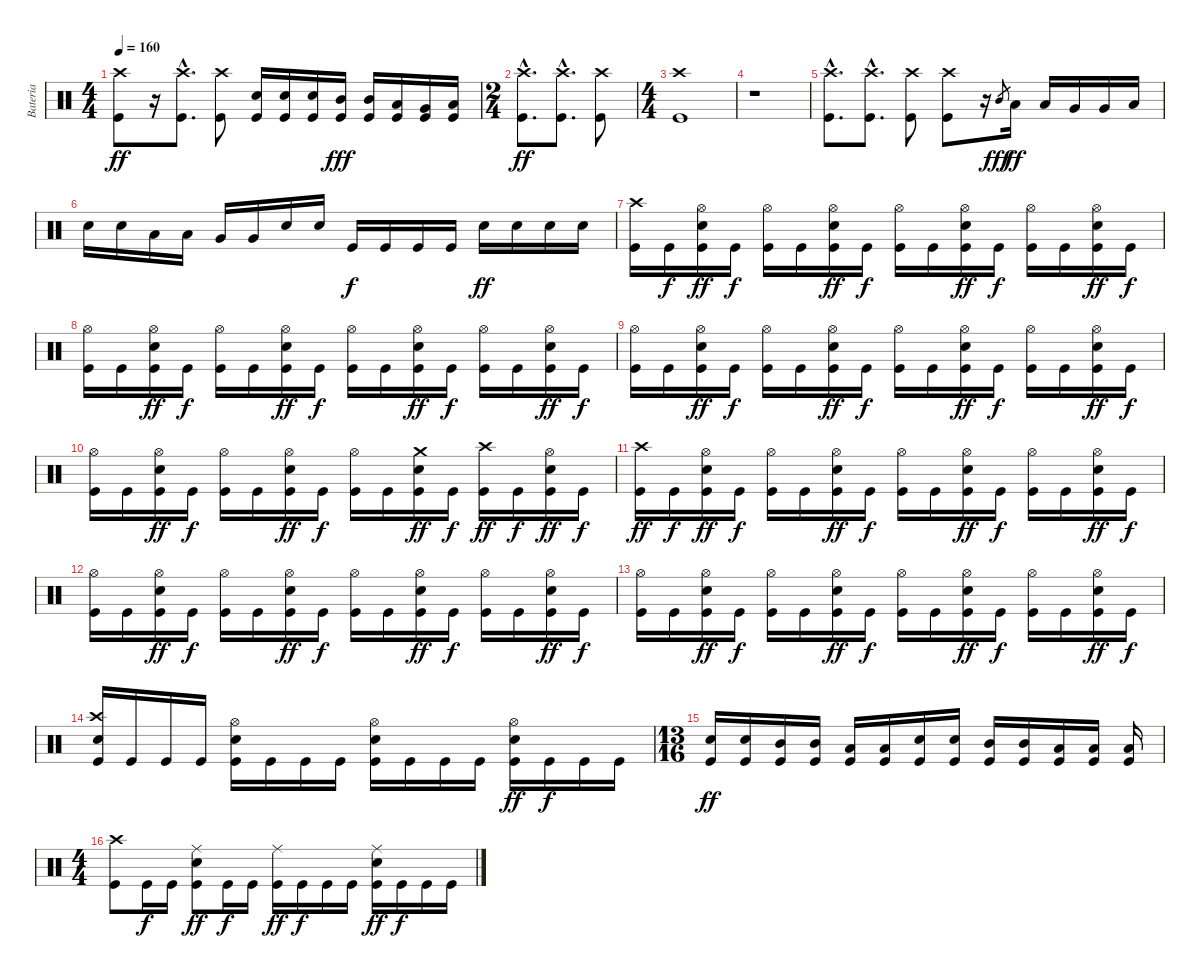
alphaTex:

\track ("Bateria" "Bateria") {instrument percussion}
\staff {score}
\articulation defaults
\ts (4 4)
\tempo 160
\clef neutral
\ks c
("Kick (hit)" "Crash high (hit)").8{dy ff} r.16 ("Kick (hit)"{hac} "Crash high (hit)"{hac}).8{d} ("Kick (hit)" "Crash high (hit)").8 ("Kick (hit)" "Electric Snare (hit)").16 ("Kick (hit)" "Electric Snare (hit)").16 ("Kick (hit)" "Electric Snare (hit)").16 ("Kick (hit)" "Mid Tom (hit)").16{dy fff} ("Kick (hit)" "Mid Tom (hit)").16 ("Kick (hit)" "Low Tom (hit)").16 ("Kick (hit)" "Very Low Tom (hit)").16 ("Kick (hit)" "Low Floor Tom (hit)").16 |
\ts (2 4)
("Kick (hit)"{hac} "Crash high (hit)"{hac}).8{d dy ff} ("Kick (hit)"{hac} "Crash high (hit)"{hac}).8{d} ("Kick (hit)" "Crash high (hit)").8 |
\ts (4 4)
("Kick (hit)" "Crash high (hit)").1 |
r.1 |
("Kick (hit)"{hac} "Crash high (hit)"{hac}).8{d} ("Kick (hit)"{hac} "Crash high (hit)"{hac}).8{d} ("Kick (hit)" "Crash high (hit)").8 ("Kick (hit)" "Crash high (hit)").8 r.16 "Mid Tom (hit)".8{gr dy fff} "Low Tom (hit)".16{dy ff} "Low Tom (hit)".16 "Very Low Tom (hit)".16 "Very Low Tom (hit)".16 "Low Floor Tom (hit)".16 |
"Electric Snare (hit)".16 "Electric Snare (hit)".16 "Low Tom (hit)".16 "Low Tom (hit)".16 "Very Low Tom (hit)".16 "Very Low Tom (hit)".16 "Electric Snare (hit)".16 "Electric Snare (hit)".16 "Kick (hit)".16{dy f} "Kick (hit)".16 "Kick (hit)".16 "Kick (hit)".16 "Electric Snare (hit)".16{dy ff} "Electric Snare (hit)".16 "Electric Snare (hit)".16 "Electric Snare (hit)".16 |
("Kick (hit)" "Crash high (hit)").16 "Kick (hit)".16{dy f} ("Kick (hit)" "Electric Snare (hit)" "Hi-Hat (open)").16{dy ff} "Kick (hit)".16{dy f} ("Kick (hit)" "Hi-Hat (open)").16 "Kick (hit)".16 ("Kick (hit)" "Electric Snare (hit)" "Hi-Hat (open)").16{dy ff} "Kick (hit)".16{dy f} ("Kick (hit)" "Hi-Hat (open)").16 "Kick (hit)".16 ("Kick (hit)" "Electric Snare (hit)" "Hi-Hat (open)").16{dy ff} "Kick (hit)".16{dy f} ("Kick (hit)" "Hi-Hat (open)").16 "Kick (hit)".16 ("Kick (hit)" "Electric Snare (hit)" "Hi-Hat (open)").16{dy ff} "Kick (hit)".16{dy f} |
("Kick (hit)" "Hi-Hat (open)").16 "Kick (hit)".16 ("Kick (hit)" "Electric Snare (hit)" "Hi-Hat (open)").16{dy ff} "Kick (hit)".16{dy f} ("Kick (hit)" "Hi-Hat (open)").16 "Kick (hit)".16 ("Kick (hit)" "Electric Snare (hit)" "Hi-Hat (open)").16{dy ff} "Kick (hit)".16{dy f} ("Kick (hit)" "Hi-Hat (open)").16 "Kick (hit)".16 ("Kick (hit)" "Electric Snare (hit)" "Hi-Hat (open)").16{dy ff} "Kick (hit)".16{dy f} ("Kick (hit)" "Hi-Hat (open)").16 "Kick (hit)".16 ("Kick (hit)" "Electric Snare (hit)" "Hi-Hat (open)").16{dy ff} "Kick (hit)".16{dy f} |
("Kick (hit)" "Hi-Hat (open)").16 "Kick (hit)".16 ("Kick (hit)" "Electric Snare (hit)" "Hi-Hat (open)").16{dy ff} "Kick (hit)".16{dy f} ("Kick (hit)" "Hi-Hat (open)").16 "Kick (hit)".16 ("Kick (hit)" "Electric Snare (hit)" "Hi-Hat (open)").16{dy ff} "Kick (hit)".16{dy f} ("Kick (hit)" "Hi-Hat (open)").16 "Kick (hit)".16 ("Kick (hit)" "Electric Snare (hit)" "Hi-Hat (open)").16{dy ff} "Kick (hit)".16{dy f} ("Kick (hit)" "Hi-Hat (open)").16 "Kick (hit)".16 ("Kick (hit)" "Electric Snare (hit)" "Hi-Hat (open)").16{dy ff} "Kick (hit)".16{dy f} |
("Kick (hit)" "Hi-Hat (open)").16 "Kick (hit)".16 ("Kick (hit)" "Electric Snare (hit)" "Hi-Hat (open)").16{dy ff} "Kick (hit)".16{dy f} ("Kick (hit)" "Hi-Hat (open)").16 "Kick (hit)".16 ("Kick (hit)" "Electric Snare (hit)" "Hi-Hat (open)").16{dy ff} "Kick (hit)".16{dy f} ("Kick (hit)" "Hi-Hat (open)").16 "Kick (hit)".16 ("Kick (hit)" "Electric Snare (hit)" "Crash medium (hit)").16{dy ff} "Kick (hit)".16{dy f} ("Kick (hit)" "Crash high (hit)").16{dy ff} "Kick (hit)".16{dy f} ("Kick (hit)" "Electric Snare (hit)" "Hi-Hat (open)").16{dy ff} "Kick (hit)".16{dy f} |
("Kick (hit)" "Crash high (hit)").16{dy ff} "Kick (hit)".16{dy f} ("Kick (hit)" "Electric Snare (hit)" "Hi-Hat (open)").16{dy ff} "Kick (hit)".16{dy f} ("Kick (hit)" "Hi-Hat (open)").16 "Kick (hit)".16 ("Kick (hit)" "Electric Snare (hit)" "Hi-Hat (open)").16{dy ff} "Kick (hit)".16{dy f} ("Kick (hit)" "Hi-Hat (open)").16 "Kick (hit)".16 ("Kick (hit)" "Electric Snare (hit)" "Hi-Hat (open)").16{dy ff} "Kick (hit)".16{dy f} ("Kick (hit)" "Hi-Hat (open)").16 "Kick (hit)".16 ("Kick (hit)" "Electric Snare (hit)" "Hi-Hat (open)").16{dy ff} "Kick (hit)".16{dy f} |
("Kick (hit)" "Hi-Hat (open)").16 "Kick (hit)".16 ("Kick (hit)" "Electric Snare (hit)" "Hi-Hat (open)").16{dy ff} "Kick (hit)".16{dy f} ("Kick (hit)" "Hi-Hat (open)").16 "Kick (hit)".16 ("Kick (hit)" "Electric Snare (hit)" "Hi-Hat (open)").16{dy ff} "Kick (hit)".16{dy f} ("Kick (hit)" "Hi-Hat (open)").16 "Kick (hit)".16 ("Kick (hit)" "Electric Snare (hit)" "Hi-Hat (open)").16{dy ff} "Kick (hit)".16{dy f} ("Kick (hit)" "Hi-Hat (open)").16 "Kick (hit)".16 ("Kick (hit)" "Electric Snare (hit)" "Hi-Hat (open)").16{dy ff} "Kick (hit)".16{dy f} |
("Kick (hit)" "Hi-Hat (open)").16 "Kick (hit)".16 ("Kick (hit)" "Electric Snare (hit)" "Hi-Hat (open)").16{dy ff} "Kick (hit)".16{dy f} ("Kick (hit)" "Hi-Hat (open)").16 "Kick (hit)".16 ("Kick (hit)" "Electric Snare (hit)" "Hi-Hat (open)").16{dy ff} "Kick (hit)".16{dy f} ("Kick (hit)" "Hi-Hat (open)").16 "Kick (hit)".16 ("Kick (hit)" "Electric Snare (hit)" "Hi-Hat (open)").16{dy ff} "Kick (hit)".16{dy f} ("Kick (hit)" "Hi-Hat (open)").16 "Kick (hit)".16 ("Kick (hit)" "Electric Snare (hit)" "Hi-Hat (open)").16{dy ff} "Kick (hit)".16{dy f} |
("Kick (hit)" "Electric Snare (hit)" "Crash high (hit)").16 "Kick (hit)".16 "Kick (hit)".16 "Kick (hit)".16 ("Kick (hit)" "Electric Snare (hit)" "Hi-Hat (open)").16 "Kick (hit)".16 "Kick (hit)".16 "Kick (hit)".16 ("Kick (hit)" "Electric Snare (hit)" "Hi-Hat (open)").16 "Kick (hit)".16 "Kick (hit)".16 "Kick (hit)".16 ("Kick (hit)" "Electric Snare (hit)" "Hi-Hat (open)").16{dy ff} "Kick (hit)".16{dy f} "Kick (hit)".16 "Kick (hit)".16 |
\ts (13 16)
("Kick (hit)" "Electric Snare (hit)").16{dy ff} ("Kick (hit)" "Electric Snare (hit)").16 ("Kick (hit)" "Mid Tom (hit)").16 ("Kick (hit)" "Mid Tom (hit)").16 ("Kick (hit)" "Low Tom (hit)").16 ("Kick (hit)" "Low Tom (hit)").16 ("Kick (hit)" "Electric Snare (hit)").16 ("Kick (hit)" "Electric Snare (hit)").16 ("Kick (hit)" "Mid Tom (hit)").16 ("Kick (hit)" "Mid Tom (hit)").16 ("Kick (hit)" "Low Tom (hit)").16 ("Kick (hit)" "Low Tom (hit)").16 ("Kick (hit)" "Low Tom (hit)").16 |
\ts (4 4)
("Kick (hit)" "Crash high (hit)").8 "Kick (hit)".16{dy f} "Kick (hit)".16 ("Kick (hit)" "Ride (middle)" "Electric Snare (hit)").8{dy ff} "Kick (hit)".16{dy f} "Kick (hit)".16 ("Kick (hit)" "Ride (middle)").16{dy ff} "Kick (hit)".16{dy f} "Kick (hit)".16 "Kick (hit)".16 ("Kick (hit)" "Ride (middle)" "Electric Snare (hit)").16{dy ff} "Kick (hit)".16{dy f} "Kick (hit)".16 "Kick (hit)".16
